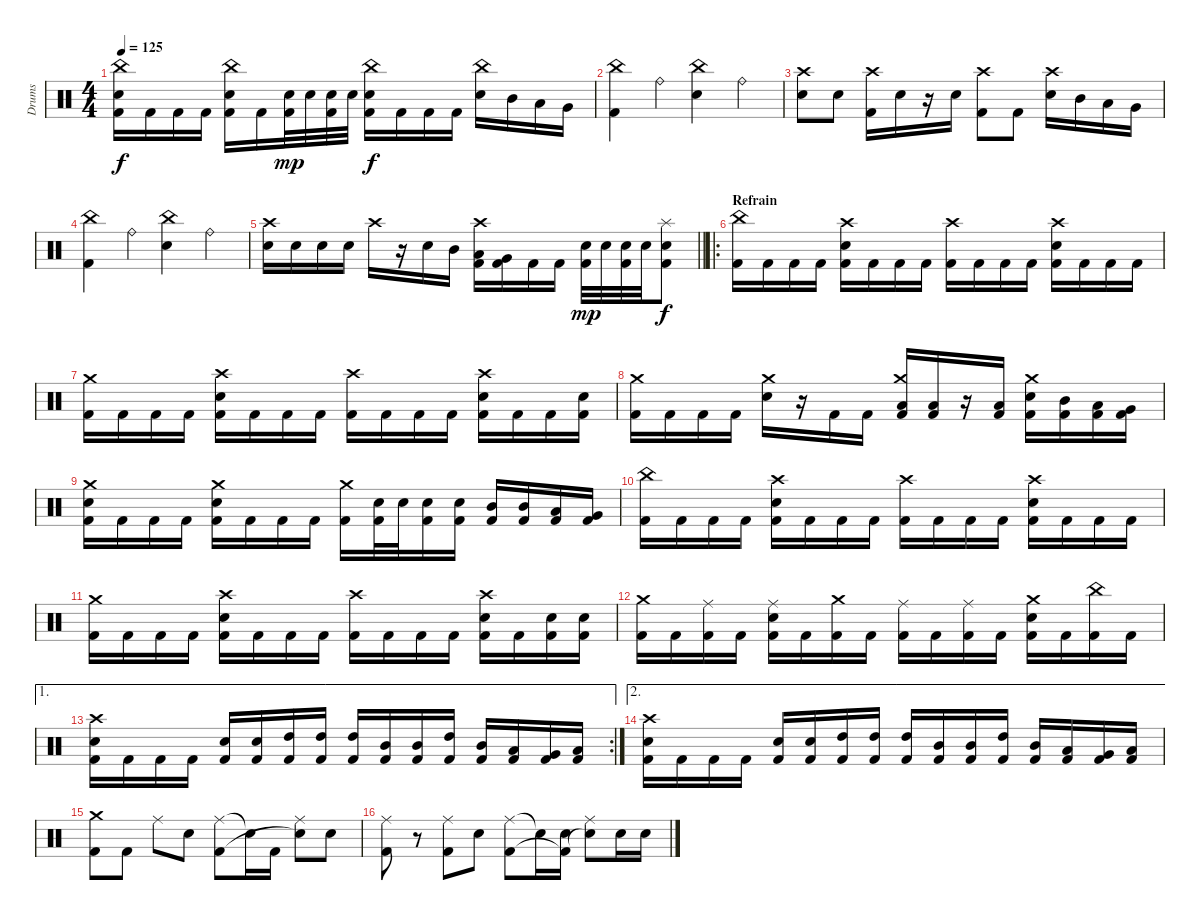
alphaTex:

\track ("Drums" "Drums") {instrument percussion}
\staff {score}
\articulation defaults
\ts (4 4)
\tempo 125
\clef neutral
\ks c
("China (hit)" "Electric Snare (hit)" "Kick (hit) 2").16{dy f} "Kick (hit) 2".16 "Kick (hit) 2".16 "Kick (hit) 2".16 ("China (hit)" "Electric Snare (hit)" "Kick (hit) 2").16 "Kick (hit) 2".16 ("Electric Snare (hit)" "Kick (hit) 2").32{dy mp} "Electric Snare (hit)".32 ("Electric Snare (hit)" "Kick (hit) 2").32 "Electric Snare (hit)".32 ("China (hit)" "Electric Snare (hit)" "Kick (hit) 2").16{dy f} "Kick (hit) 2".16 "Kick (hit) 2".16 "Kick (hit) 2".16 ("China (hit)" "Electric Snare (hit)").16 "Mid Tom (hit)".16 "Low Tom (hit)".16 "Very Low Tom (hit)".16 |
("China (hit)" "Kick (hit) 2").4 "Ride (bell)".4 ("China (hit)" "Electric Snare (hit)").4 "Ride (bell)".4 |
("Crash high (hit)" "Electric Snare (hit)").8 "Electric Snare (hit)".8 ("Crash high (hit)" "Kick (hit) 2").16 "Electric Snare (hit)".16 r.16 "Electric Snare (hit)".16 ("Crash high (hit)" "Kick (hit) 2").8 "Kick (hit) 2".8 ("Crash high (hit)" "Electric Snare (hit)").16 "Mid Tom (hit)".16 "Low Tom (hit)".16 "Very Low Tom (hit)".16 |
("China (hit)" "Kick (hit) 2").4 "Ride (bell)".4 ("China (hit)" "Electric Snare (hit)").4 "Ride (bell)".4 |
\barLineRight lightlight
("Crash high (hit)" "Electric Snare (hit)").16 "Electric Snare (hit)".16 "Electric Snare (hit)".16 "Electric Snare (hit)".16 "Crash high (hit)".16 r.16 "Electric Snare (hit)".16 "Mid Tom (hit)".16 ("Crash high (hit)" "Low Tom (hit)" "Kick (hit) 2").16 ("Very Low Tom (hit)" "Kick (hit) 2").16 "Kick (hit) 2".16 "Kick (hit) 2".16 ("Electric Snare (hit)" "Kick (hit) 2").32{dy mp} "Electric Snare (hit)".32 ("Electric Snare (hit)" "Kick (hit) 2").32 "Electric Snare (hit)".32 ("Splash (hit)" "Electric Snare (hit)" "Kick (hit) 2").8{dy f} |
\ro
\section ("" "Refrain")
("China (hit)" "Kick (hit) 2").16 "Kick (hit) 2".16 "Kick (hit) 2".16 "Kick (hit) 2".16 ("Crash high (hit)" "Electric Snare (hit)" "Kick (hit) 2").16 "Kick (hit) 2".16 "Kick (hit) 2".16 "Kick (hit) 2".16 ("Crash high (hit)" "Kick (hit) 2").16 "Kick (hit) 2".16 "Kick (hit) 2".16 "Kick (hit) 2".16 ("Crash high (hit)" "Electric Snare (hit)" "Kick (hit) 2").16 "Kick (hit) 2".16 "Kick (hit) 2".16 "Kick (hit) 2".16 |
("Crash medium (hit)" "Kick (hit) 2").16 "Kick (hit) 2".16 "Kick (hit) 2".16 "Kick (hit) 2".16 ("Crash high (hit)" "Electric Snare (hit)" "Kick (hit) 2").16 "Kick (hit) 2".16 "Kick (hit) 2".16 "Kick (hit) 2".16 ("Crash high (hit)" "Kick (hit) 2").16 "Kick (hit) 2".16 "Kick (hit) 2".16 "Kick (hit) 2".16 ("Crash high (hit)" "Electric Snare (hit)" "Kick (hit) 2").16 "Kick (hit) 2".16 "Kick (hit) 2".16 ("Electric Snare (hit)" "Kick (hit) 2").16 |
("Crash medium (hit)" "Kick (hit) 2").16 "Kick (hit) 2".16 "Kick (hit) 2".16 "Kick (hit) 2".16 ("Crash medium (hit)" "Electric Snare (hit)").16 r.16 "Kick (hit) 2".16 "Kick (hit) 2".16 ("Crash medium (hit)" "Low Floor Tom (hit)" "Kick (hit) 2").16 ("Low Floor Tom (hit)" "Kick (hit) 2").16 r.16 ("Low Floor Tom (hit)" "Kick (hit) 2").16 ("Crash medium (hit)" "Electric Snare (hit)" "Kick (hit) 2").16 ("Mid Tom (hit)" "Kick (hit) 2").16 ("Low Tom (hit)" "Kick (hit) 2").16 ("Very Low Tom (hit)" "Kick (hit) 2").16 |
("Crash medium (hit)" "Electric Snare (hit)" "Kick (hit) 2").16 "Kick (hit) 2".16 "Kick (hit) 2".16 "Kick (hit) 2".16 ("Crash medium (hit)" "Electric Snare (hit)" "Kick (hit) 2").16 "Kick (hit) 2".16 "Kick (hit) 2".16 "Kick (hit) 2".16 ("Crash medium (hit)" "Kick (hit) 2").16 ("Electric Snare (hit)" "Kick (hit) 2").32 "Electric Snare (hit)".32 ("Electric Snare (hit)" "Kick (hit) 2").16 ("Electric Snare (hit)" "Kick (hit) 2").16 ("Mid Tom (hit)" "Kick (hit) 2").16 ("Mid Tom (hit)" "Kick (hit) 2").16 ("Low Tom (hit)" "Kick (hit) 2").16 ("Very Low Tom (hit)" "Kick (hit) 2").16 |
("China (hit)" "Kick (hit) 2").16 "Kick (hit) 2".16 "Kick (hit) 2".16 "Kick (hit) 2".16 ("Crash high (hit)" "Electric Snare (hit)" "Kick (hit) 2").16 "Kick (hit) 2".16 "Kick (hit) 2".16 "Kick (hit) 2".16 ("Crash high (hit)" "Kick (hit) 2").16 "Kick (hit) 2".16 "Kick (hit) 2".16 "Kick (hit) 2".16 ("Crash high (hit)" "Electric Snare (hit)" "Kick (hit) 2").16 "Kick (hit) 2".16 "Kick (hit) 2".16 "Kick (hit) 2".16 |
("Crash medium (hit)" "Kick (hit) 2").16 "Kick (hit) 2".16 "Kick (hit) 2".16 "Kick (hit) 2".16 ("Crash high (hit)" "Electric Snare (hit)" "Kick (hit) 2").16 "Kick (hit) 2".16 "Kick (hit) 2".16 "Kick (hit) 2".16 ("Crash high (hit)" "Kick (hit) 2").16 "Kick (hit) 2".16 "Kick (hit) 2".16 "Kick (hit) 2".16 ("Crash high (hit)" "Electric Snare (hit)" "Kick (hit) 2").16 "Kick (hit) 2".16 ("Electric Snare (hit)" "Kick (hit) 2").16 ("Electric Snare (hit)" "Kick (hit) 2").16 |
("Crash medium (hit)" "Kick (hit) 2").16 "Kick (hit) 2".16 ("Ride (middle)" "Kick (hit) 2").16 "Kick (hit) 2".16 ("Ride (middle)" "Electric Snare (hit)" "Kick (hit) 2").16 "Kick (hit) 2".16 ("Crash medium (hit)" "Kick (hit) 2").16 "Kick (hit) 2".16 ("Ride (middle)" "Kick (hit) 2").16 "Kick (hit) 2".16 ("Ride (middle)" "Kick (hit) 2").16 "Kick (hit) 2".16 ("Crash medium (hit)" "Electric Snare (hit)" "Kick (hit) 2").16 "Kick (hit) 2".16 ("China (hit)" "Kick (hit) 2").16 "Kick (hit) 2".16 |
\ae 1
\rc 2
("Crash high (hit)" "Electric Snare (hit)" "Kick (hit) 2").16 "Kick (hit) 2".16 "Kick (hit) 2".16 "Kick (hit) 2".16 ("Electric Snare (hit)" "Kick (hit) 2").16 ("Electric Snare (hit)" "Kick (hit) 2").16 ("High Tom (hit)" "Kick (hit) 2").16 ("High Tom (hit)" "Kick (hit) 2").16 ("High Tom (hit)" "Kick (hit) 2").16 ("Mid Tom (hit)" "Kick (hit) 2").16 ("Mid Tom (hit)" "Kick (hit) 2").16 ("High Tom (hit)" "Kick (hit) 2").16 ("Mid Tom (hit)" "Kick (hit) 2").16 ("Low Tom (hit)" "Kick (hit) 2").16 ("Very Low Tom (hit)" "Kick (hit) 2").16 ("Low Floor Tom (hit)" "Kick (hit) 2").16 |
\ae 2
("Crash high (hit)" "Electric Snare (hit)" "Kick (hit) 2").16 "Kick (hit) 2".16 "Kick (hit) 2".16 "Kick (hit) 2".16 ("Electric Snare (hit)" "Kick (hit) 2").16 ("Electric Snare (hit)" "Kick (hit) 2").16 ("High Tom (hit)" "Kick (hit) 2").16 ("High Tom (hit)" "Kick (hit) 2").16 ("High Tom (hit)" "Kick (hit) 2").16 ("Mid Tom (hit)" "Kick (hit) 2").16 ("Mid Tom (hit)" "Kick (hit) 2").16 ("High Tom (hit)" "Kick (hit) 2").16 ("Mid Tom (hit)" "Kick (hit) 2").16 ("Low Tom (hit)" "Kick (hit) 2").16 ("Very Low Tom (hit)" "Kick (hit) 2").16 ("Low Floor Tom (hit)" "Kick (hit) 2").16 |
("Crash medium (hit)" "Kick (hit) 2").8 "Kick (hit) 2".8 "Ride (middle)".8 "Electric Snare (hit)".8 ("Ride (middle)" "Kick (hit) 2").8 "Snare (hit)"{t}.16 "Kick (hit) 2".16 ("Ride (middle)" "Snare (hit)"{t}).8 "Electric Snare (hit)".8 |
("Ride (middle)" "Kick (hit) 2").8 r.8 ("Ride (middle)" "Kick (hit) 2").8 "Electric Snare (hit)".8 ("Ride (middle)" "Kick (hit) 2").8 "Snare (hit)"{t}.16 ("Electric Snare (hit)" "Kick (hit) 2"{t}).16 ("Ride (middle)" "Snare (hit)"{t}).8 "Electric Snare (hit)".16 "Electric Snare (hit)".16
